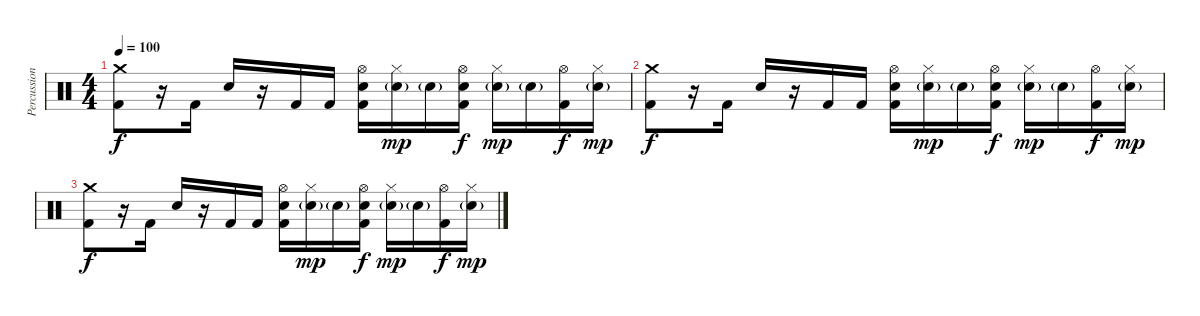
\track ("Percussions" "Percussion") {instrument percussion}
\staff {score}
\articulation defaults
\ts (4 4)
\tempo 100
\clef neutral
\ks c
("Crash medium (hit)" "Kick (hit) 2").8{dy f} r.16 "Kick (hit) 2".16 "Electric Snare (hit)".16 r.16 "Kick (hit) 2".16 "Kick (hit) 2".16 ("Hi-Hat (open)" "Electric Snare (hit)" "Kick (hit) 2").16 ("Hi-Hat (closed)" "Electric Snare (hit)"{g}).16{dy mp} "Electric Snare (hit)"{g}.16 ("Hi-Hat (open)" "Electric Snare (hit)" "Kick (hit) 2").16{dy f} ("Hi-Hat (closed)" "Electric Snare (hit)"{g}).16{dy mp} "Electric Snare (hit)"{g}.16 ("Hi-Hat (open)" "Kick (hit) 2").16{dy f} ("Hi-Hat (closed)" "Electric Snare (hit)"{g}).16{dy mp} |
("Crash medium (hit)" "Kick (hit) 2").8{dy f} r.16 "Kick (hit) 2".16 "Electric Snare (hit)".16 r.16 "Kick (hit) 2".16 "Kick (hit) 2".16 ("Hi-Hat (open)" "Electric Snare (hit)" "Kick (hit) 2").16 ("Hi-Hat (closed)" "Electric Snare (hit)"{g}).16{dy mp} "Electric Snare (hit)"{g}.16 ("Hi-Hat (open)" "Electric Snare (hit)" "Kick (hit) 2").16{dy f} ("Hi-Hat (closed)" "Electric Snare (hit)"{g}).16{dy mp} "Electric Snare (hit)"{g}.16 ("Hi-Hat (open)" "Kick (hit) 2").16{dy f} ("Hi-Hat (closed)" "Electric Snare (hit)"{g}).16{dy mp} |
("Crash medium (hit)" "Kick (hit) 2").8{dy f} r.16 "Kick (hit) 2".16 "Electric Snare (hit)".16 r.16 "Kick (hit) 2".16 "Kick (hit) 2".16 ("Hi-Hat (open)" "Electric Snare (hit)" "Kick (hit) 2").16 ("Hi-Hat (closed)" "Electric Snare (hit)"{g}).16{dy mp} "Electric Snare (hit)"{g}.16 ("Hi-Hat (open)" "Electric Snare (hit)" "Kick (hit) 2").16{dy f} ("Hi-Hat (closed)" "Electric Snare (hit)"{g}).16{dy mp} "Electric Snare (hit)"{g}.16 ("Hi-Hat (open)" "Kick (hit) 2").16{dy f} ("Hi-Hat (closed)" "Electric Snare (hit)"{g}).16{dy mp}
